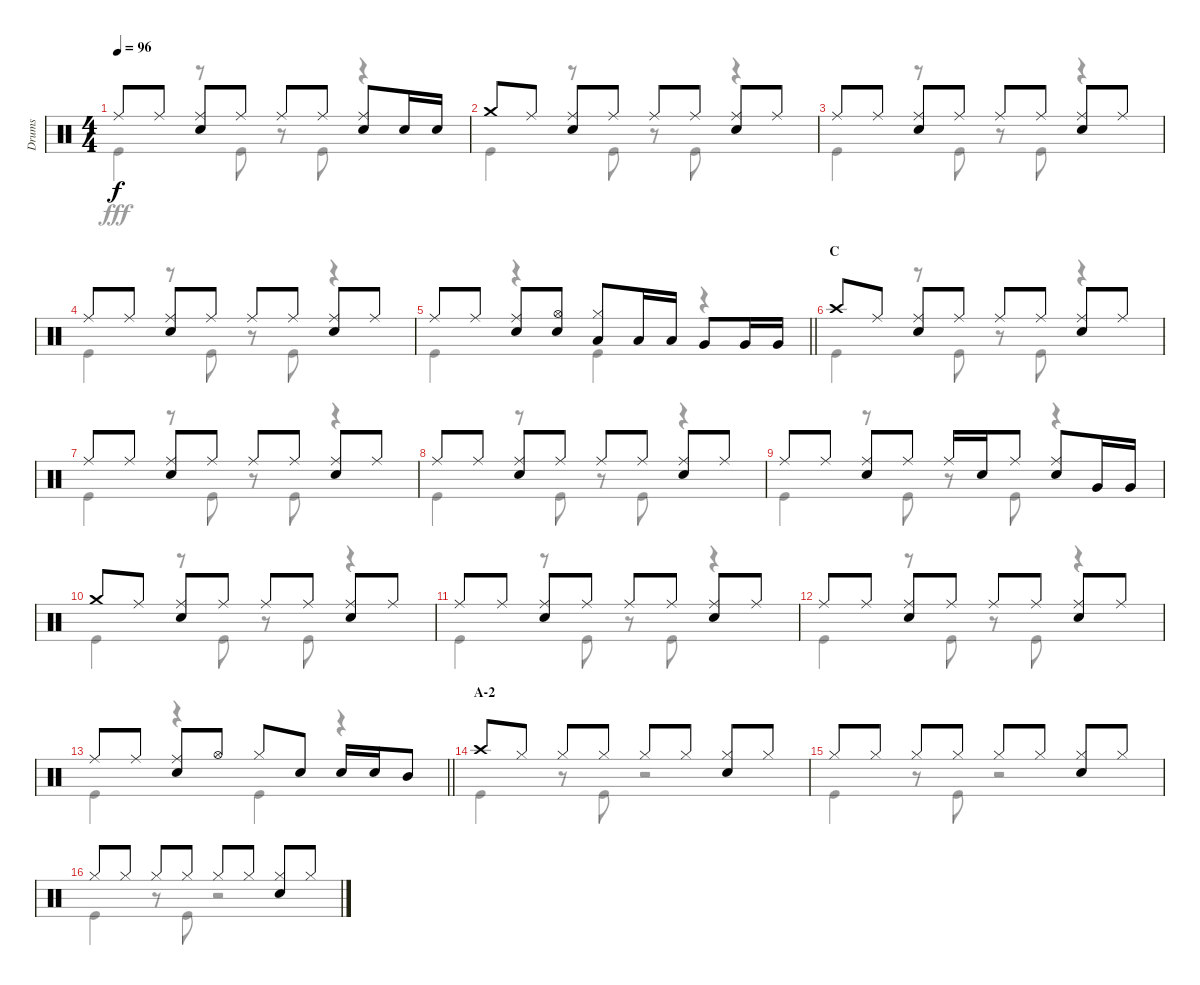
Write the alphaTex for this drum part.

\track ("Drums" "Drums") {instrument percussion}
\staff {score}
\articulation defaults
\voice
\ts (4 4)
\tempo 96
\clef neutral
\ks c "Ride (middle)".8{dy f} "Ride (middle)".8
("Ride (middle)" "Snare (hit) 2").8 "Ride (middle)".8 "Ride (middle)".8 "Ride (middle)".8 ("Ride (middle)" "Snare (hit) 2").8 "Snare (hit) 2".16 "Snare (hit) 2".16 |
"Crash medium (hit)".8 "Ride (middle)".8 ("Ride (middle)" "Snare (hit) 2").8 "Ride (middle)".8 "Ride (middle)".8 "Ride (middle)".8 ("Ride (middle)" "Snare (hit) 2").8 "Ride (middle)".8 |
"Ride (middle)".8 "Ride (middle)".8 ("Ride (middle)" "Snare (hit) 2").8 "Ride (middle)".8 "Ride (middle)".8 "Ride (middle)".8 ("Ride (middle)" "Snare (hit) 2").8 "Ride (middle)".8 |
"Ride (middle)".8 "Ride (middle)".8 ("Ride (middle)" "Snare (hit) 2").8 "Ride (middle)".8 "Ride (middle)".8 "Ride (middle)".8 ("Ride (middle)" "Snare (hit) 2").8 "Ride (middle)".8 |
\barLineRight lightlight "Ride (middle)".8 "Ride (middle)".8
("Ride (middle)" "Snare (hit) 2").8 ("Hi-Hat (open)" "Snare (hit) 2").8 ("Hi-Hat (closed)" "Low Tom (hit)").8 "Low Tom (hit)".16 "Low Tom (hit)".16 "Very Low Tom (hit)".8 "Very Low Tom (hit)".16 "Very Low Tom (hit)".16 |
\section ("" "C")
"Crash high (hit)".8 "Ride (middle)".8 ("Ride (middle)" "Snare (hit) 2").8 "Ride (middle)".8 "Ride (middle)".8 "Ride (middle)".8 ("Ride (middle)" "Snare (hit) 2").8 "Ride (middle)".8 |
"Ride (middle)".8 "Ride (middle)".8 ("Ride (middle)" "Snare (hit) 2").8 "Ride (middle)".8 "Ride (middle)".8 "Ride (middle)".8 ("Ride (middle)" "Snare (hit) 2").8 "Ride (middle)".8 |
"Ride (middle)".8 "Ride (middle)".8 ("Ride (middle)" "Snare (hit) 2").8 "Ride (middle)".8 "Ride (middle)".8 "Ride (middle)".8 ("Ride (middle)" "Snare (hit) 2").8 "Ride (middle)".8 |
"Ride (middle)".8 "Ride (middle)".8 ("Ride (middle)" "Snare (hit) 2").8 "Ride (middle)".8 "Ride (middle)".16 "Snare (hit) 2".16 "Ride (middle)".8 ("Ride (middle)" "Snare (hit) 2").8 "Very Low Tom (hit)".16 "Very Low Tom (hit)".16 |
"Crash medium (hit)".8 "Ride (middle)".8 ("Ride (middle)" "Snare (hit) 2").8 "Ride (middle)".8 "Ride (middle)".8 "Ride (middle)".8 ("Ride (middle)" "Snare (hit) 2").8 "Ride (middle)".8 |
"Ride (middle)".8 "Ride (middle)".8 ("Ride (middle)" "Snare (hit) 2").8 "Ride (middle)".8 "Ride (middle)".8 "Ride (middle)".8 ("Ride (middle)" "Snare (hit) 2").8 "Ride (middle)".8 |
"Ride (middle)".8 "Ride (middle)".8 ("Ride (middle)" "Snare (hit) 2").8 "Ride (middle)".8 "Ride (middle)".8 "Ride (middle)".8 ("Ride (middle)" "Snare (hit) 2").8 "Ride (middle)".8 |
\barLineRight lightlight "Ride (middle)".8 "Ride (middle)".8
("Ride (middle)" "Snare (hit) 2").8 "Hi-Hat (open)".8 "Hi-Hat (closed)".8 "Snare (hit) 2".8 "Snare (hit) 2".16 "Snare (hit) 2".16 "Mid Tom (hit)".8 |
\section ("" "A-2")
"Crash high (hit)".8 "Hi-Hat (closed)".8 "Hi-Hat (closed)".8 "Hi-Hat (closed)".8 "Hi-Hat (closed)".8 "Hi-Hat (closed)".8 ("Hi-Hat (closed)" "Snare (hit) 2").8 "Hi-Hat (closed)".8 |
"Hi-Hat (closed)".8 "Hi-Hat (closed)".8 "Hi-Hat (closed)".8 "Hi-Hat (closed)".8 "Hi-Hat (closed)".8 "Hi-Hat (closed)".8 ("Hi-Hat (closed)" "Snare (hit) 2").8 "Hi-Hat (closed)".8 |
"Hi-Hat (closed)".8 "Hi-Hat (closed)".8 "Hi-Hat (closed)".8 "Hi-Hat (closed)".8 "Hi-Hat (closed)".8 "Hi-Hat (closed)".8 ("Hi-Hat (closed)" "Snare (hit) 2").8 "Hi-Hat (closed)".8
\voice
\clef neutral
\ottava regular
\simile none
\ks c "Kick (hit)".4{dy fff}
r.8 "Kick (hit)".8 r.8 "Kick (hit)".8 r.4 |
"Kick (hit)".4 r.8 "Kick (hit)".8 r.8 "Kick (hit)".8 r.4 |
"Kick (hit)".4 r.8 "Kick (hit)".8 r.8 "Kick (hit)".8 r.4 |
"Kick (hit)".4 r.8 "Kick (hit)".8 r.8 "Kick (hit)".8 r.4 |
\barLineRight lightlight "Kick (hit)".4
r.4 "Kick (hit)".4 r.4 |
"Kick (hit)".4 r.8 "Kick (hit)".8 r.8 "Kick (hit)".8 r.4 |
"Kick (hit)".4 r.8 "Kick (hit)".8 r.8 "Kick (hit)".8 r.4 |
"Kick (hit)".4 r.8 "Kick (hit)".8 r.8 "Kick (hit)".8 r.4 |
"Kick (hit)".4 r.8 "Kick (hit)".8 r.8 "Kick (hit)".8 r.4 |
"Kick (hit)".4 r.8 "Kick (hit)".8 r.8 "Kick (hit)".8 r.4 |
"Kick (hit)".4 r.8 "Kick (hit)".8 r.8 "Kick (hit)".8 r.4 |
"Kick (hit)".4 r.8 "Kick (hit)".8 r.8 "Kick (hit)".8 r.4 |
\barLineRight lightlight "Kick (hit)".4
r.4 "Kick (hit)".4 r.4 |
"Kick (hit)".4 r.8 "Kick (hit)".8 r.2 |
"Kick (hit)".4 r.8 "Kick (hit)".8 r.2 |
"Kick (hit)".4 r.8 "Kick (hit)".8 r.2
